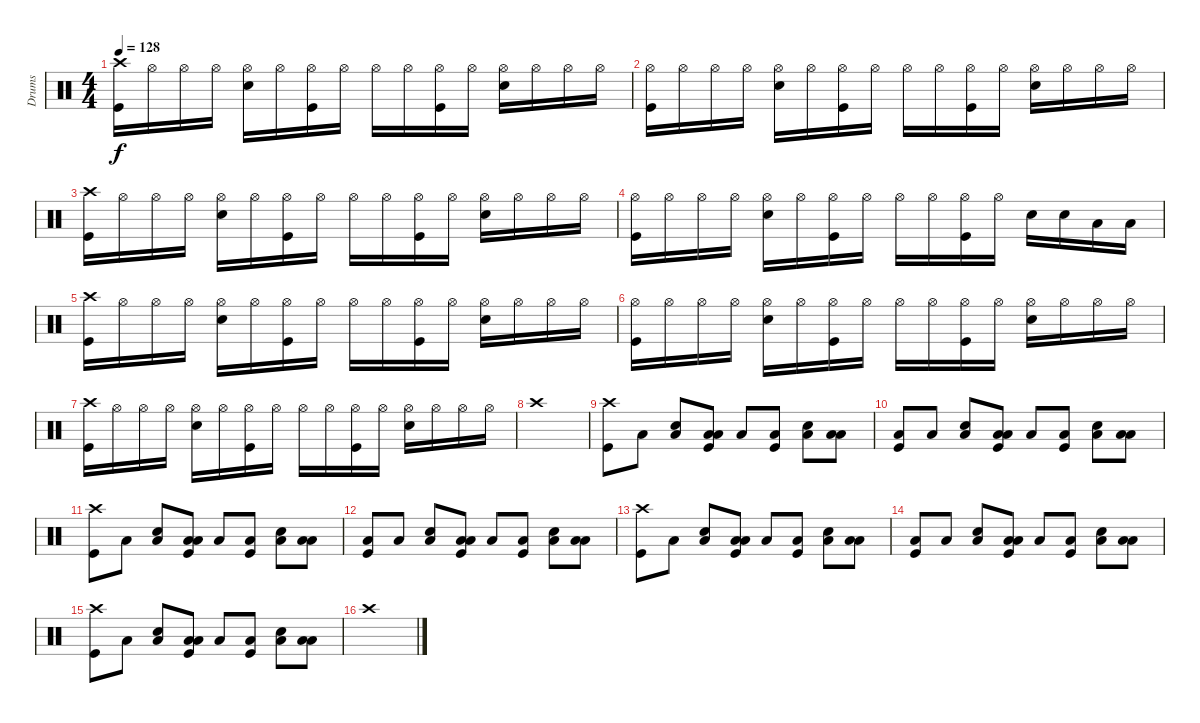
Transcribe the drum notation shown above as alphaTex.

\track ("Drums" "Drums") {instrument percussion}
\staff {score}
\articulation defaults
\ts (4 4)
\tempo 128
\clef neutral
\ks c
("Kick (hit)" "Crash high (hit)").16{dy f} "Hi-Hat (open)".16 "Hi-Hat (open)".16 "Hi-Hat (open)".16 ("Snare (hit) 2" "Hi-Hat (open)").16 "Hi-Hat (open)".16 ("Kick (hit)" "Hi-Hat (open)").16 "Hi-Hat (open)".16 "Hi-Hat (open)".16 "Hi-Hat (open)".16 ("Kick (hit)" "Hi-Hat (open)").16 "Hi-Hat (open)".16 ("Snare (hit) 2" "Hi-Hat (open)").16 "Hi-Hat (open)".16 "Hi-Hat (open)".16 "Hi-Hat (open)".16 |
("Kick (hit)" "Hi-Hat (open)").16 "Hi-Hat (open)".16 "Hi-Hat (open)".16 "Hi-Hat (open)".16 ("Snare (hit) 2" "Hi-Hat (open)").16 "Hi-Hat (open)".16 ("Kick (hit)" "Hi-Hat (open)").16 "Hi-Hat (open)".16 "Hi-Hat (open)".16 "Hi-Hat (open)".16 ("Kick (hit)" "Hi-Hat (open)").16 "Hi-Hat (open)".16 ("Snare (hit) 2" "Hi-Hat (open)").16 "Hi-Hat (open)".16 "Hi-Hat (open)".16 "Hi-Hat (open)".16 |
("Kick (hit)" "Crash high (hit)").16 "Hi-Hat (open)".16 "Hi-Hat (open)".16 "Hi-Hat (open)".16 ("Snare (hit) 2" "Hi-Hat (open)").16 "Hi-Hat (open)".16 ("Kick (hit)" "Hi-Hat (open)").16 "Hi-Hat (open)".16 "Hi-Hat (open)".16 "Hi-Hat (open)".16 ("Kick (hit)" "Hi-Hat (open)").16 "Hi-Hat (open)".16 ("Snare (hit) 2" "Hi-Hat (open)").16 "Hi-Hat (open)".16 "Hi-Hat (open)".16 "Hi-Hat (open)".16 |
("Kick (hit)" "Hi-Hat (open)").16 "Hi-Hat (open)".16 "Hi-Hat (open)".16 "Hi-Hat (open)".16 ("Snare (hit) 2" "Hi-Hat (open)").16 "Hi-Hat (open)".16 ("Kick (hit)" "Hi-Hat (open)").16 "Hi-Hat (open)".16 "Hi-Hat (open)".16 "Hi-Hat (open)".16 ("Kick (hit)" "Hi-Hat (open)").16 "Hi-Hat (open)".16 "Snare (hit) 2".16 "Electric Snare (hit)".16 "Low Tom (hit)".16 "Low Tom (hit)".16 |
("Kick (hit)" "Crash high (hit)").16 "Hi-Hat (open)".16 "Hi-Hat (open)".16 "Hi-Hat (open)".16 ("Snare (hit) 2" "Hi-Hat (open)").16 "Hi-Hat (open)".16 ("Kick (hit)" "Hi-Hat (open)").16 "Hi-Hat (open)".16 "Hi-Hat (open)".16 "Hi-Hat (open)".16 ("Kick (hit)" "Hi-Hat (open)").16 "Hi-Hat (open)".16 ("Snare (hit) 2" "Hi-Hat (open)").16 "Hi-Hat (open)".16 "Hi-Hat (open)".16 "Hi-Hat (open)".16 |
("Kick (hit)" "Hi-Hat (open)").16 "Hi-Hat (open)".16 "Hi-Hat (open)".16 "Hi-Hat (open)".16 ("Snare (hit) 2" "Hi-Hat (open)").16 "Hi-Hat (open)".16 ("Kick (hit)" "Hi-Hat (open)").16 "Hi-Hat (open)".16 "Hi-Hat (open)".16 "Hi-Hat (open)".16 ("Kick (hit)" "Hi-Hat (open)").16 "Hi-Hat (open)".16 ("Snare (hit) 2" "Hi-Hat (open)").16 "Hi-Hat (open)".16 "Hi-Hat (open)".16 "Hi-Hat (open)".16 |
("Kick (hit)" "Crash high (hit)").16 "Hi-Hat (open)".16 "Hi-Hat (open)".16 "Hi-Hat (open)".16 ("Snare (hit) 2" "Hi-Hat (open)").16 "Hi-Hat (open)".16 ("Kick (hit)" "Hi-Hat (open)").16 "Hi-Hat (open)".16 "Hi-Hat (open)".16 "Hi-Hat (open)".16 ("Kick (hit)" "Hi-Hat (open)").16 "Hi-Hat (open)".16 ("Snare (hit) 2" "Hi-Hat (open)").16 "Hi-Hat (open)".16 "Hi-Hat (open)".16 "Hi-Hat (open)".16 |
"Crash high (hit)".1 |
("Kick (hit)" "Crash high (hit)").8 "Low Floor Tom (hit)".8 ("Snare (hit) 2" "Low Floor Tom (hit)").8 ("Kick (hit)" "Low Floor Tom (hit)" "Low Tom (hit)").8 "Low Floor Tom (hit)".8 ("Kick (hit)" "Low Floor Tom (hit)").8 ("Snare (hit) 2" "Low Floor Tom (hit)").8 ("Low Floor Tom (hit)" "Low Tom (hit)").8 |
("Kick (hit)" "Low Floor Tom (hit)").8 "Low Floor Tom (hit)".8 ("Snare (hit) 2" "Low Floor Tom (hit)").8 ("Kick (hit)" "Low Floor Tom (hit)" "Low Tom (hit)").8 "Low Floor Tom (hit)".8 ("Kick (hit)" "Low Floor Tom (hit)").8 ("Snare (hit) 2" "Low Floor Tom (hit)").8 ("Low Floor Tom (hit)" "Low Tom (hit)").8 |
("Kick (hit)" "Crash high (hit)").8 "Low Floor Tom (hit)".8 ("Snare (hit) 2" "Low Floor Tom (hit)").8 ("Kick (hit)" "Low Floor Tom (hit)" "Low Tom (hit)").8 "Low Floor Tom (hit)".8 ("Kick (hit)" "Low Floor Tom (hit)").8 ("Snare (hit) 2" "Low Floor Tom (hit)").8 ("Low Floor Tom (hit)" "Low Tom (hit)").8 |
("Kick (hit)" "Low Floor Tom (hit)").8 "Low Floor Tom (hit)".8 ("Snare (hit) 2" "Low Floor Tom (hit)").8 ("Kick (hit)" "Low Floor Tom (hit)" "Low Tom (hit)").8 "Low Floor Tom (hit)".8 ("Kick (hit)" "Low Floor Tom (hit)").8 ("Snare (hit) 2" "Low Floor Tom (hit)").8 ("Low Floor Tom (hit)" "Low Tom (hit)").8 |
("Kick (hit)" "Crash high (hit)").8 "Low Floor Tom (hit)".8 ("Snare (hit) 2" "Low Floor Tom (hit)").8 ("Kick (hit)" "Low Floor Tom (hit)" "Low Tom (hit)").8 "Low Floor Tom (hit)".8 ("Kick (hit)" "Low Floor Tom (hit)").8 ("Snare (hit) 2" "Low Floor Tom (hit)").8 ("Low Floor Tom (hit)" "Low Tom (hit)").8 |
("Kick (hit)" "Low Floor Tom (hit)").8 "Low Floor Tom (hit)".8 ("Snare (hit) 2" "Low Floor Tom (hit)").8 ("Kick (hit)" "Low Floor Tom (hit)" "Low Tom (hit)").8 "Low Floor Tom (hit)".8 ("Kick (hit)" "Low Floor Tom (hit)").8 ("Snare (hit) 2" "Low Floor Tom (hit)").8 ("Low Floor Tom (hit)" "Low Tom (hit)").8 |
("Kick (hit)" "Crash high (hit)").8 "Low Floor Tom (hit)".8 ("Snare (hit) 2" "Low Floor Tom (hit)").8 ("Kick (hit)" "Low Floor Tom (hit)" "Low Tom (hit)").8 "Low Floor Tom (hit)".8 ("Kick (hit)" "Low Floor Tom (hit)").8 ("Snare (hit) 2" "Low Floor Tom (hit)").8 ("Low Floor Tom (hit)" "Low Tom (hit)").8 |
"Crash high (hit)".1
